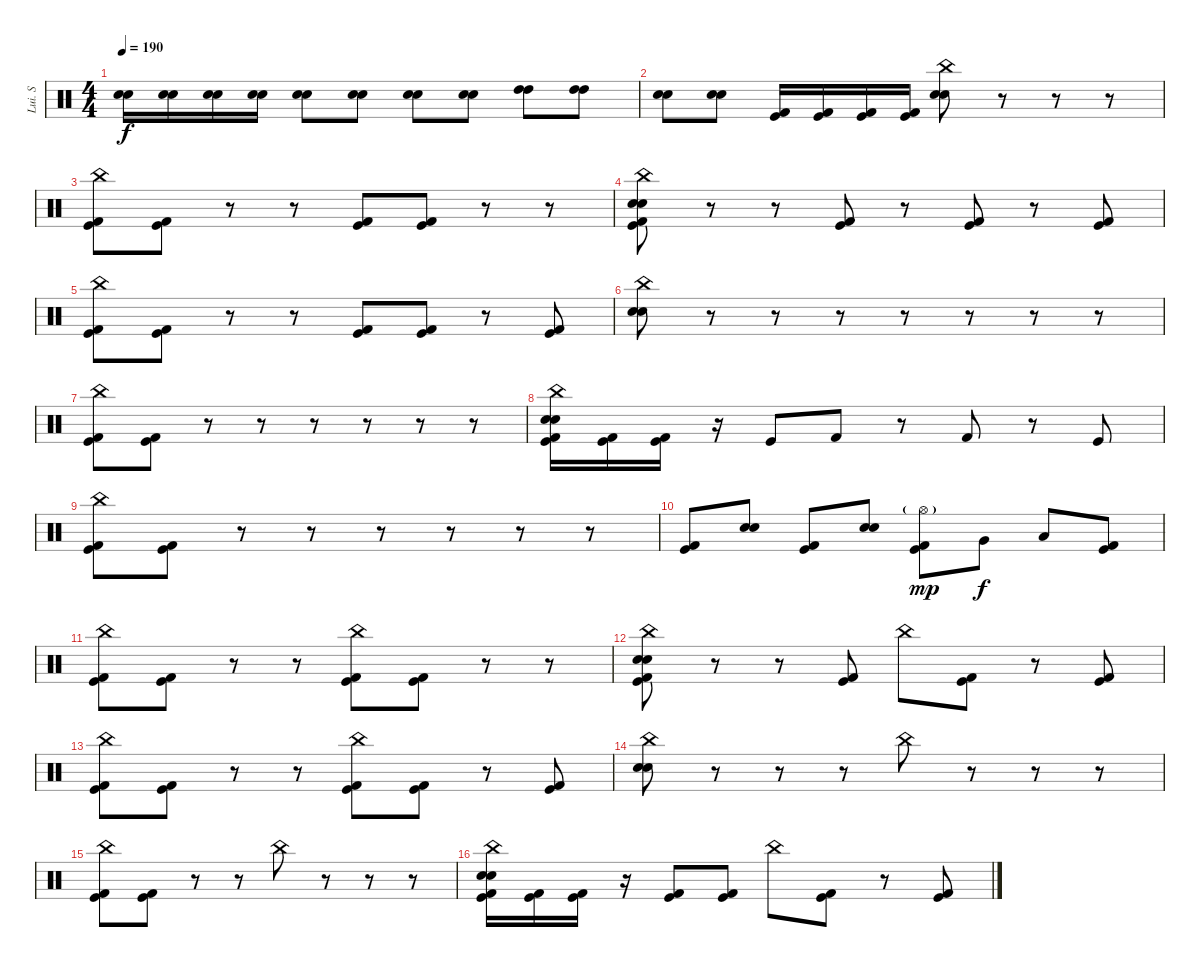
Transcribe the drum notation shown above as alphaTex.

\track ("Lui. S" "Lui. S") {instrument percussion}
\staff {score}
\articulation defaults
\ts (4 4)
\tempo 190
\clef neutral
\ks c
("Electric Snare (hit)" "Snare (hit) 2").16{dy f} ("Electric Snare (hit)" "Snare (hit) 2").16 ("Electric Snare (hit)" "Snare (hit) 2").16 ("Electric Snare (hit)" "Snare (hit) 2").16 ("Electric Snare (hit)" "Snare (hit) 2").8 ("Electric Snare (hit)" "Snare (hit) 2").8 ("Electric Snare (hit)" "Snare (hit) 2").8 ("Electric Snare (hit)" "Snare (hit) 2").8 ("High Tom (hit)" "High Tom (hit)").8 ("High Tom (hit)" "High Tom (hit)").8 |
("Electric Snare (hit)" "Snare (hit) 2").8 ("Electric Snare (hit)" "Snare (hit) 2").8 ("Kick (hit)" "Kick (hit) 2").16 ("Kick (hit)" "Kick (hit) 2").16 ("Kick (hit)" "Kick (hit) 2").16 ("Kick (hit)" "Kick (hit) 2").16 ("China (hit)" "Electric Snare (hit)" "Snare (hit) 2").8 r.8 r.8 r.8 |
("China (hit)" "Kick (hit)" "Kick (hit) 2").8 ("Kick (hit)" "Kick (hit) 2").8 r.8 r.8 ("Kick (hit)" "Kick (hit) 2").8 ("Kick (hit)" "Kick (hit) 2").8 r.8 r.8 |
("China (hit)" "Electric Snare (hit)" "Snare (hit) 2" "Kick (hit)" "Kick (hit) 2").8 r.8 r.8 ("Kick (hit)" "Kick (hit) 2").8 r.8 ("Kick (hit)" "Kick (hit) 2").8 r.8 ("Kick (hit)" "Kick (hit) 2").8 |
("China (hit)" "Kick (hit)" "Kick (hit) 2").8 ("Kick (hit)" "Kick (hit) 2").8 r.8 r.8 ("Kick (hit) 2" "Kick (hit)").8 ("Kick (hit) 2" "Kick (hit)").8 r.8 ("Kick (hit) 2" "Kick (hit)").8 |
("China (hit)" "Electric Snare (hit)" "Snare (hit) 2").8 r.8 r.8 r.8 r.8 r.8 r.8 r.8 |
("China (hit)" "Kick (hit)" "Kick (hit) 2").8 ("Kick (hit)" "Kick (hit) 2").8 r.8 r.8 r.8 r.8 r.8 r.8 |
("China (hit)" "Electric Snare (hit)" "Snare (hit) 2" "Kick (hit)" "Kick (hit) 2").16 ("Kick (hit)" "Kick (hit) 2").16 ("Kick (hit)" "Kick (hit) 2").16 r.16 "Kick (hit)".8 "Kick (hit) 2".8 r.8 "Kick (hit) 2".8 r.8 "Kick (hit)".8 |
("China (hit)" "Kick (hit)" "Kick (hit) 2").8 ("Kick (hit)" "Kick (hit) 2").8 r.8 r.8 r.8 r.8 r.8 r.8 |
("Kick (hit) 2" "Kick (hit)").8 ("Snare (hit) 2" "Electric Snare (hit)").8 ("Kick (hit) 2" "Kick (hit)").8 ("Snare (hit) 2" "Electric Snare (hit)").8 ("Hi-Hat (open)"{g} "Kick (hit) 2" "Kick (hit)").8{dy mp} "Very Low Tom (hit)".8{dy f} "Low Floor Tom (hit)".8 ("Kick (hit) 2" "Kick (hit)").8 |
("China (hit)" "Kick (hit)" "Kick (hit) 2").8 ("Kick (hit)" "Kick (hit) 2").8 r.8 r.8 ("China (hit)" "Kick (hit) 2" "Kick (hit)").8 ("Kick (hit) 2" "Kick (hit)").8 r.8 r.8 |
("China (hit)" "Electric Snare (hit)" "Snare (hit) 2" "Kick (hit)" "Kick (hit) 2").8 r.8 r.8 ("Kick (hit)" "Kick (hit) 2").8 "China (hit)".8 ("Kick (hit)" "Kick (hit) 2").8 r.8 ("Kick (hit)" "Kick (hit) 2").8 |
("China (hit)" "Kick (hit)" "Kick (hit) 2").8 ("Kick (hit)" "Kick (hit) 2").8 r.8 r.8 ("China (hit)" "Kick (hit) 2" "Kick (hit)").8 ("Kick (hit) 2" "Kick (hit)").8 r.8 ("Kick (hit) 2" "Kick (hit)").8 |
("China (hit)" "Electric Snare (hit)" "Snare (hit) 2").8 r.8 r.8 r.8 "China (hit)".8 r.8 r.8 r.8 |
("China (hit)" "Kick (hit)" "Kick (hit) 2").8 ("Kick (hit)" "Kick (hit) 2").8 r.8 r.8 "China (hit)".8 r.8 r.8 r.8 |
("China (hit)" "Electric Snare (hit)" "Snare (hit) 2" "Kick (hit)" "Kick (hit) 2").16 ("Kick (hit) 2" "Kick (hit)").16 ("Kick (hit) 2" "Kick (hit)").16 r.16 ("Kick (hit) 2" "Kick (hit)").8 ("Kick (hit)" "Kick (hit) 2").8 "China (hit)".8 ("Kick (hit)" "Kick (hit) 2").8 r.8 ("Kick (hit)" "Kick (hit) 2").8
